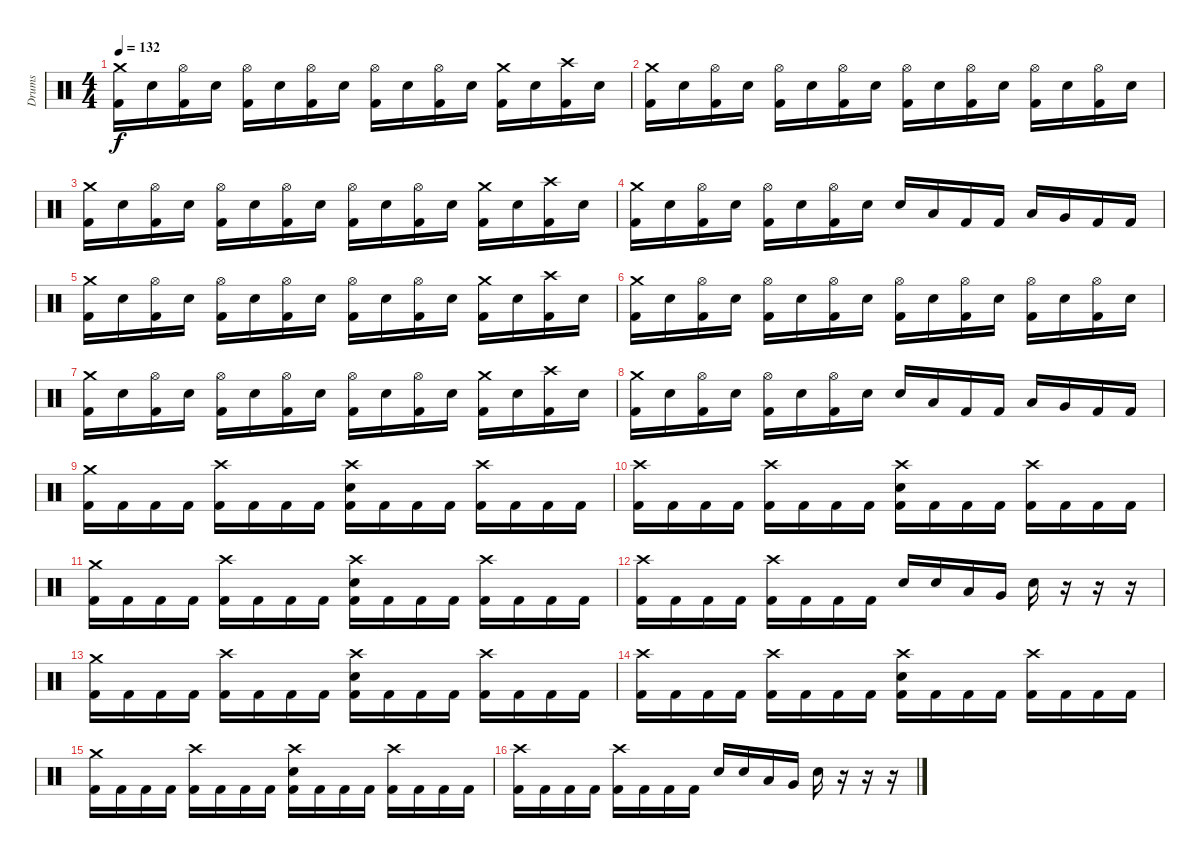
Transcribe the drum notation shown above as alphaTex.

\track ("Drums" "Drums") {instrument percussion}
\staff {score}
\articulation defaults
\ts (4 4)
\tempo 132
\clef neutral
\ks c
("Crash medium (hit)" "Kick (hit) 2").16{dy f} "Electric Snare (hit)".16 ("Hi-Hat (open)" "Kick (hit) 2").16 "Electric Snare (hit)".16 ("Hi-Hat (open)" "Kick (hit) 2").16 "Electric Snare (hit)".16 ("Hi-Hat (open)" "Kick (hit) 2").16 "Electric Snare (hit)".16 ("Hi-Hat (open)" "Kick (hit) 2").16 "Electric Snare (hit)".16 ("Hi-Hat (open)" "Kick (hit) 2").16 "Electric Snare (hit)".16 ("Crash medium (hit)" "Kick (hit) 2").16 "Electric Snare (hit)".16 ("Crash high (hit)" "Kick (hit) 2").16 "Electric Snare (hit)".16 |
("Crash medium (hit)" "Kick (hit) 2").16 "Electric Snare (hit)".16 ("Hi-Hat (open)" "Kick (hit) 2").16 "Electric Snare (hit)".16 ("Hi-Hat (open)" "Kick (hit) 2").16 "Electric Snare (hit)".16 ("Hi-Hat (open)" "Kick (hit) 2").16 "Electric Snare (hit)".16 ("Hi-Hat (open)" "Kick (hit) 2").16 "Electric Snare (hit)".16 ("Hi-Hat (open)" "Kick (hit) 2").16 "Electric Snare (hit)".16 ("Hi-Hat (open)" "Kick (hit) 2").16 "Electric Snare (hit)".16 ("Hi-Hat (open)" "Kick (hit) 2").16 "Electric Snare (hit)".16 |
("Crash medium (hit)" "Kick (hit) 2").16 "Electric Snare (hit)".16 ("Hi-Hat (open)" "Kick (hit) 2").16 "Electric Snare (hit)".16 ("Hi-Hat (open)" "Kick (hit) 2").16 "Electric Snare (hit)".16 ("Hi-Hat (open)" "Kick (hit) 2").16 "Electric Snare (hit)".16 ("Hi-Hat (open)" "Kick (hit) 2").16 "Electric Snare (hit)".16 ("Hi-Hat (open)" "Kick (hit) 2").16 "Electric Snare (hit)".16 ("Crash medium (hit)" "Kick (hit) 2").16 "Electric Snare (hit)".16 ("Crash high (hit)" "Kick (hit) 2").16 "Electric Snare (hit)".16 |
("Crash medium (hit)" "Kick (hit) 2").16 "Electric Snare (hit)".16 ("Hi-Hat (open)" "Kick (hit) 2").16 "Electric Snare (hit)".16 ("Hi-Hat (open)" "Kick (hit) 2").16 "Electric Snare (hit)".16 ("Hi-Hat (open)" "Kick (hit) 2").16 "Electric Snare (hit)".16 "Electric Snare (hit)".16 "Low Tom (hit)".16 "Kick (hit) 2".16 "Kick (hit) 2".16 "Low Tom (hit)".16 "Very Low Tom (hit)".16 "Kick (hit) 2".16 "Kick (hit) 2".16 |
("Crash medium (hit)" "Kick (hit) 2").16 "Electric Snare (hit)".16 ("Hi-Hat (open)" "Kick (hit) 2").16 "Electric Snare (hit)".16 ("Hi-Hat (open)" "Kick (hit) 2").16 "Electric Snare (hit)".16 ("Hi-Hat (open)" "Kick (hit) 2").16 "Electric Snare (hit)".16 ("Hi-Hat (open)" "Kick (hit) 2").16 "Electric Snare (hit)".16 ("Hi-Hat (open)" "Kick (hit) 2").16 "Electric Snare (hit)".16 ("Crash medium (hit)" "Kick (hit) 2").16 "Electric Snare (hit)".16 ("Crash high (hit)" "Kick (hit) 2").16 "Electric Snare (hit)".16 |
("Crash medium (hit)" "Kick (hit) 2").16 "Electric Snare (hit)".16 ("Hi-Hat (open)" "Kick (hit) 2").16 "Electric Snare (hit)".16 ("Hi-Hat (open)" "Kick (hit) 2").16 "Electric Snare (hit)".16 ("Hi-Hat (open)" "Kick (hit) 2").16 "Electric Snare (hit)".16 ("Hi-Hat (open)" "Kick (hit) 2").16 "Electric Snare (hit)".16 ("Hi-Hat (open)" "Kick (hit) 2").16 "Electric Snare (hit)".16 ("Hi-Hat (open)" "Kick (hit) 2").16 "Electric Snare (hit)".16 ("Hi-Hat (open)" "Kick (hit) 2").16 "Electric Snare (hit)".16 |
("Crash medium (hit)" "Kick (hit) 2").16 "Electric Snare (hit)".16 ("Hi-Hat (open)" "Kick (hit) 2").16 "Electric Snare (hit)".16 ("Hi-Hat (open)" "Kick (hit) 2").16 "Electric Snare (hit)".16 ("Hi-Hat (open)" "Kick (hit) 2").16 "Electric Snare (hit)".16 ("Hi-Hat (open)" "Kick (hit) 2").16 "Electric Snare (hit)".16 ("Hi-Hat (open)" "Kick (hit) 2").16 "Electric Snare (hit)".16 ("Crash medium (hit)" "Kick (hit) 2").16 "Electric Snare (hit)".16 ("Crash high (hit)" "Kick (hit) 2").16 "Electric Snare (hit)".16 |
("Crash medium (hit)" "Kick (hit) 2").16 "Electric Snare (hit)".16 ("Hi-Hat (open)" "Kick (hit) 2").16 "Electric Snare (hit)".16 ("Hi-Hat (open)" "Kick (hit) 2").16 "Electric Snare (hit)".16 ("Hi-Hat (open)" "Kick (hit) 2").16 "Electric Snare (hit)".16 "Electric Snare (hit)".16 "Low Tom (hit)".16 "Kick (hit) 2".16 "Kick (hit) 2".16 "Low Tom (hit)".16 "Very Low Tom (hit)".16 "Kick (hit) 2".16 "Kick (hit) 2".16 |
("Crash medium (hit)" "Kick (hit) 2").16 "Kick (hit) 2".16 "Kick (hit) 2".16 "Kick (hit) 2".16 ("Crash high (hit)" "Kick (hit) 2").16 "Kick (hit) 2".16 "Kick (hit) 2".16 "Kick (hit) 2".16 ("Crash high (hit)" "Electric Snare (hit)" "Kick (hit) 2").16 "Kick (hit) 2".16 "Kick (hit) 2".16 "Kick (hit) 2".16 ("Crash high (hit)" "Kick (hit) 2").16 "Kick (hit) 2".16 "Kick (hit) 2".16 "Kick (hit) 2".16 |
("Crash high (hit)" "Kick (hit) 2").16 "Kick (hit) 2".16 "Kick (hit) 2".16 "Kick (hit) 2".16 ("Crash high (hit)" "Kick (hit) 2").16 "Kick (hit) 2".16 "Kick (hit) 2".16 "Kick (hit) 2".16 ("Crash high (hit)" "Electric Snare (hit)" "Kick (hit) 2").16 "Kick (hit) 2".16 "Kick (hit) 2".16 "Kick (hit) 2".16 ("Crash high (hit)" "Kick (hit) 2").16 "Kick (hit) 2".16 "Kick (hit) 2".16 "Kick (hit) 2".16 |
("Crash medium (hit)" "Kick (hit) 2").16 "Kick (hit) 2".16 "Kick (hit) 2".16 "Kick (hit) 2".16 ("Crash high (hit)" "Kick (hit) 2").16 "Kick (hit) 2".16 "Kick (hit) 2".16 "Kick (hit) 2".16 ("Crash high (hit)" "Electric Snare (hit)" "Kick (hit) 2").16 "Kick (hit) 2".16 "Kick (hit) 2".16 "Kick (hit) 2".16 ("Crash high (hit)" "Kick (hit) 2").16 "Kick (hit) 2".16 "Kick (hit) 2".16 "Kick (hit) 2".16 |
("Crash high (hit)" "Kick (hit) 2").16 "Kick (hit) 2".16 "Kick (hit) 2".16 "Kick (hit) 2".16 ("Crash high (hit)" "Kick (hit) 2").16 "Kick (hit) 2".16 "Kick (hit) 2".16 "Kick (hit) 2".16 "Electric Snare (hit)".16 "Electric Snare (hit)".16 "Low Tom (hit)".16 "Very Low Tom (hit)".16 "Electric Snare (hit)".16 r.16 r.16 r.16 |
("Crash medium (hit)" "Kick (hit) 2").16 "Kick (hit) 2".16 "Kick (hit) 2".16 "Kick (hit) 2".16 ("Crash high (hit)" "Kick (hit) 2").16 "Kick (hit) 2".16 "Kick (hit) 2".16 "Kick (hit) 2".16 ("Crash high (hit)" "Electric Snare (hit)" "Kick (hit) 2").16 "Kick (hit) 2".16 "Kick (hit) 2".16 "Kick (hit) 2".16 ("Crash high (hit)" "Kick (hit) 2").16 "Kick (hit) 2".16 "Kick (hit) 2".16 "Kick (hit) 2".16 |
("Crash high (hit)" "Kick (hit) 2").16 "Kick (hit) 2".16 "Kick (hit) 2".16 "Kick (hit) 2".16 ("Crash high (hit)" "Kick (hit) 2").16 "Kick (hit) 2".16 "Kick (hit) 2".16 "Kick (hit) 2".16 ("Crash high (hit)" "Electric Snare (hit)" "Kick (hit) 2").16 "Kick (hit) 2".16 "Kick (hit) 2".16 "Kick (hit) 2".16 ("Crash high (hit)" "Kick (hit) 2").16 "Kick (hit) 2".16 "Kick (hit) 2".16 "Kick (hit) 2".16 |
("Crash medium (hit)" "Kick (hit) 2").16 "Kick (hit) 2".16 "Kick (hit) 2".16 "Kick (hit) 2".16 ("Crash high (hit)" "Kick (hit) 2").16 "Kick (hit) 2".16 "Kick (hit) 2".16 "Kick (hit) 2".16 ("Crash high (hit)" "Electric Snare (hit)" "Kick (hit) 2").16 "Kick (hit) 2".16 "Kick (hit) 2".16 "Kick (hit) 2".16 ("Crash high (hit)" "Kick (hit) 2").16 "Kick (hit) 2".16 "Kick (hit) 2".16 "Kick (hit) 2".16 |
("Crash high (hit)" "Kick (hit) 2").16 "Kick (hit) 2".16 "Kick (hit) 2".16 "Kick (hit) 2".16 ("Crash high (hit)" "Kick (hit) 2").16 "Kick (hit) 2".16 "Kick (hit) 2".16 "Kick (hit) 2".16 "Electric Snare (hit)".16 "Electric Snare (hit)".16 "Low Tom (hit)".16 "Very Low Tom (hit)".16 "Electric Snare (hit)".16 r.16 r.16 r.16
